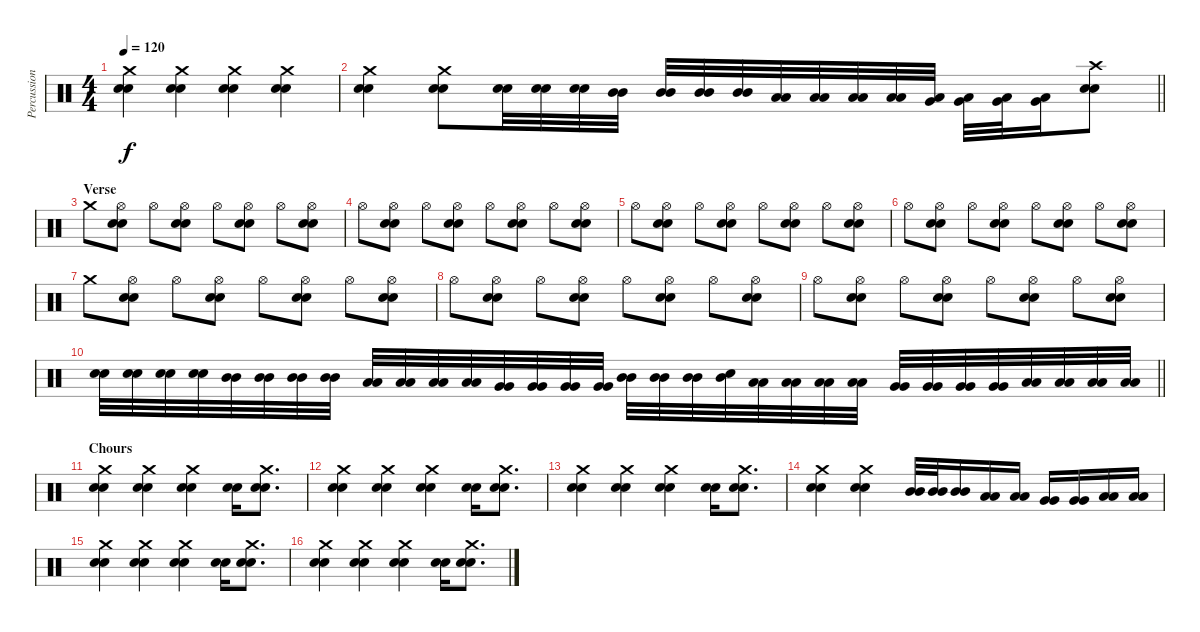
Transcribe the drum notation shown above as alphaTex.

\track ("Percussioni" "Percussion") {instrument percussion}
\staff
\articulation defaults
\ts (4 4)
\tempo 120
\clef neutral
\ks c
("Crash medium (hit)" "Electric Snare (hit)" "Snare (hit) 2").4{dy f} ("Crash medium (hit)" "Electric Snare (hit)" "Snare (hit) 2").4 ("Crash medium (hit)" "Electric Snare (hit)" "Snare (hit) 2").4 ("Crash medium (hit)" "Electric Snare (hit)" "Snare (hit) 2").4 |
\barLineRight lightlight
("Crash medium (hit)" "Electric Snare (hit)" "Snare (hit) 2").4 ("Crash medium (hit)" "Electric Snare (hit)" "Snare (hit) 2").8 ("Electric Snare (hit)" "Snare (hit) 2").32 ("Electric Snare (hit)" "Snare (hit) 2").32 ("Electric Snare (hit)" "Snare (hit) 2").32 ("Mid Tom (hit)" "Mid Tom (hit)").32 ("Mid Tom (hit)" "Mid Tom (hit)").32 ("Mid Tom (hit)" "Mid Tom (hit)").32 ("Mid Tom (hit)" "Mid Tom (hit)").32 ("Low Tom (hit)" "Low Tom (hit)").32 ("Low Tom (hit)" "Low Tom (hit)").32 ("Low Tom (hit)" "Low Tom (hit)").32 ("Low Tom (hit)" "Low Tom (hit)").32 ("Very Low Tom (hit)" "Low Floor Tom (hit)").32 ("Very Low Tom (hit)" "Low Floor Tom (hit)").32 ("Very Low Tom (hit)" "Low Floor Tom (hit)").32 ("Very Low Tom (hit)" "Low Floor Tom (hit)").16 ("Crash high (hit)" "Electric Snare (hit)" "Snare (hit) 2").8 |
\section ("" "Verse")
"Crash medium (hit)".8 ("Hi-Hat (open)" "Electric Snare (hit)" "Snare (hit) 2").8 "Hi-Hat (open)".8 ("Hi-Hat (open)" "Electric Snare (hit)" "Snare (hit) 2").8 "Hi-Hat (open)".8 ("Hi-Hat (open)" "Electric Snare (hit)" "Snare (hit) 2").8 "Hi-Hat (open)".8 ("Hi-Hat (open)" "Electric Snare (hit)" "Snare (hit) 2").8 |
"Hi-Hat (open)".8 ("Hi-Hat (open)" "Electric Snare (hit)" "Snare (hit) 2").8 "Hi-Hat (open)".8 ("Hi-Hat (open)" "Electric Snare (hit)" "Snare (hit) 2").8 "Hi-Hat (open)".8 ("Hi-Hat (open)" "Electric Snare (hit)" "Snare (hit) 2").8 "Hi-Hat (open)".8 ("Hi-Hat (open)" "Electric Snare (hit)" "Snare (hit) 2").8 |
"Hi-Hat (open)".8 ("Hi-Hat (open)" "Electric Snare (hit)" "Snare (hit) 2").8 "Hi-Hat (open)".8 ("Hi-Hat (open)" "Electric Snare (hit)" "Snare (hit) 2").8 "Hi-Hat (open)".8 ("Hi-Hat (open)" "Electric Snare (hit)" "Snare (hit) 2").8 "Hi-Hat (open)".8 ("Hi-Hat (open)" "Electric Snare (hit)" "Snare (hit) 2").8 |
"Hi-Hat (open)".8 ("Hi-Hat (open)" "Electric Snare (hit)" "Snare (hit) 2").8 "Hi-Hat (open)".8 ("Hi-Hat (open)" "Electric Snare (hit)" "Snare (hit) 2").8 "Hi-Hat (open)".8 ("Hi-Hat (open)" "Electric Snare (hit)" "Snare (hit) 2").8 "Hi-Hat (open)".8 ("Hi-Hat (open)" "Electric Snare (hit)" "Snare (hit) 2").8 |
"Crash medium (hit)".8 ("Hi-Hat (open)" "Electric Snare (hit)" "Snare (hit) 2").8 "Hi-Hat (open)".8 ("Hi-Hat (open)" "Electric Snare (hit)" "Snare (hit) 2").8 "Hi-Hat (open)".8 ("Hi-Hat (open)" "Electric Snare (hit)" "Snare (hit) 2").8 "Hi-Hat (open)".8 ("Hi-Hat (open)" "Electric Snare (hit)" "Snare (hit) 2").8 |
"Hi-Hat (open)".8 ("Hi-Hat (open)" "Electric Snare (hit)" "Snare (hit) 2").8 "Hi-Hat (open)".8 ("Hi-Hat (open)" "Electric Snare (hit)" "Snare (hit) 2").8 "Hi-Hat (open)".8 ("Hi-Hat (open)" "Electric Snare (hit)" "Snare (hit) 2").8 "Hi-Hat (open)".8 ("Hi-Hat (open)" "Electric Snare (hit)" "Snare (hit) 2").8 |
"Hi-Hat (open)".8 ("Hi-Hat (open)" "Electric Snare (hit)" "Snare (hit) 2").8 "Hi-Hat (open)".8 ("Hi-Hat (open)" "Electric Snare (hit)" "Snare (hit) 2").8 "Hi-Hat (open)".8 ("Hi-Hat (open)" "Electric Snare (hit)" "Snare (hit) 2").8 "Hi-Hat (open)".8 ("Hi-Hat (open)" "Electric Snare (hit)" "Snare (hit) 2").8 |
\barLineRight lightlight
("Electric Snare (hit)" "Snare (hit) 2").32 ("Electric Snare (hit)" "Snare (hit) 2").32 ("Electric Snare (hit)" "Snare (hit) 2").32 ("Electric Snare (hit)" "Snare (hit) 2").32 ("Mid Tom (hit)" "Mid Tom (hit)").32 ("Mid Tom (hit)" "Mid Tom (hit)").32 ("Mid Tom (hit)" "Mid Tom (hit)").32 ("Mid Tom (hit)" "Mid Tom (hit)").32 ("Low Tom (hit)" "Low Tom (hit)").32 ("Low Tom (hit)" "Low Tom (hit)").32 ("Low Tom (hit)" "Low Tom (hit)").32 ("Low Tom (hit)" "Low Tom (hit)").32 ("Very Low Tom (hit)" "Very Low Tom (hit)").32 ("Very Low Tom (hit)" "Very Low Tom (hit)").32 ("Very Low Tom (hit)" "Very Low Tom (hit)").32 ("Very Low Tom (hit)" "Very Low Tom (hit)").32 ("Mid Tom (hit)" "Mid Tom (hit)").32 ("Mid Tom (hit)" "Mid Tom (hit)").32 ("Mid Tom (hit)" "Mid Tom (hit)").32 ("Mid Tom (hit)" "Snare (hit)").32 ("Low Tom (hit)" "Low Tom (hit)").32 ("Low Tom (hit)" "Low Tom (hit)").32 ("Low Tom (hit)" "Low Tom (hit)").32 ("Low Tom (hit)" "Low Tom (hit)").32 ("Very Low Tom (hit)" "Very Low Tom (hit)").32 ("Very Low Tom (hit)" "Very Low Tom (hit)").32 ("Very Low Tom (hit)" "Very Low Tom (hit)").32 ("Very Low Tom (hit)" "Very Low Tom (hit)").32 ("Low Floor Tom (hit)" "Low Floor Tom (hit)").32 ("Low Floor Tom (hit)" "Low Floor Tom (hit)").32 ("Low Floor Tom (hit)" "Low Floor Tom (hit)").32 ("Low Floor Tom (hit)" "Low Floor Tom (hit)").32 |
\section ("" "Chours")
("Crash medium (hit)" "Electric Snare (hit)" "Snare (hit) 2").4 ("Crash medium (hit)" "Electric Snare (hit)" "Snare (hit) 2").4 ("Crash medium (hit)" "Electric Snare (hit)" "Snare (hit) 2").4 ("Electric Snare (hit)" "Snare (hit) 2").16 ("Crash medium (hit)" "Electric Snare (hit)" "Snare (hit) 2").8{d} |
("Crash medium (hit)" "Electric Snare (hit)" "Snare (hit) 2").4 ("Crash medium (hit)" "Electric Snare (hit)" "Snare (hit) 2").4 ("Crash medium (hit)" "Electric Snare (hit)" "Snare (hit) 2").4 ("Electric Snare (hit)" "Snare (hit) 2").16 ("Crash medium (hit)" "Electric Snare (hit)" "Snare (hit) 2").8{d} |
("Crash medium (hit)" "Electric Snare (hit)" "Snare (hit) 2").4 ("Crash medium (hit)" "Electric Snare (hit)" "Snare (hit) 2").4 ("Crash medium (hit)" "Electric Snare (hit)" "Snare (hit) 2").4 ("Electric Snare (hit)" "Snare (hit) 2").16 ("Crash medium (hit)" "Electric Snare (hit)" "Snare (hit) 2").8{d} |
("Crash medium (hit)" "Electric Snare (hit)" "Snare (hit) 2").4 ("Crash medium (hit)" "Electric Snare (hit)" "Snare (hit) 2").4 ("Mid Tom (hit)" "Mid Tom (hit)").32 ("Mid Tom (hit)" "Mid Tom (hit)").32 ("Mid Tom (hit)" "Mid Tom (hit)").16 ("Low Tom (hit)" "Low Tom (hit)").16 ("Low Tom (hit)" "Low Tom (hit)").16 ("Very Low Tom (hit)" "Very Low Tom (hit)").16 ("Very Low Tom (hit)" "Very Low Tom (hit)").16 ("Low Floor Tom (hit)" "Low Floor Tom (hit)").16 ("Low Floor Tom (hit)" "Low Floor Tom (hit)").16 |
("Crash medium (hit)" "Electric Snare (hit)" "Snare (hit) 2").4 ("Crash medium (hit)" "Electric Snare (hit)" "Snare (hit) 2").4 ("Crash medium (hit)" "Electric Snare (hit)" "Snare (hit) 2").4 ("Electric Snare (hit)" "Snare (hit) 2").16 ("Crash medium (hit)" "Electric Snare (hit)" "Snare (hit) 2").8{d} |
("Crash medium (hit)" "Electric Snare (hit)" "Snare (hit) 2").4 ("Crash medium (hit)" "Electric Snare (hit)" "Snare (hit) 2").4 ("Crash medium (hit)" "Electric Snare (hit)" "Snare (hit) 2").4 ("Electric Snare (hit)" "Snare (hit) 2").16 ("Crash medium (hit)" "Electric Snare (hit)" "Snare (hit) 2").8{d}
